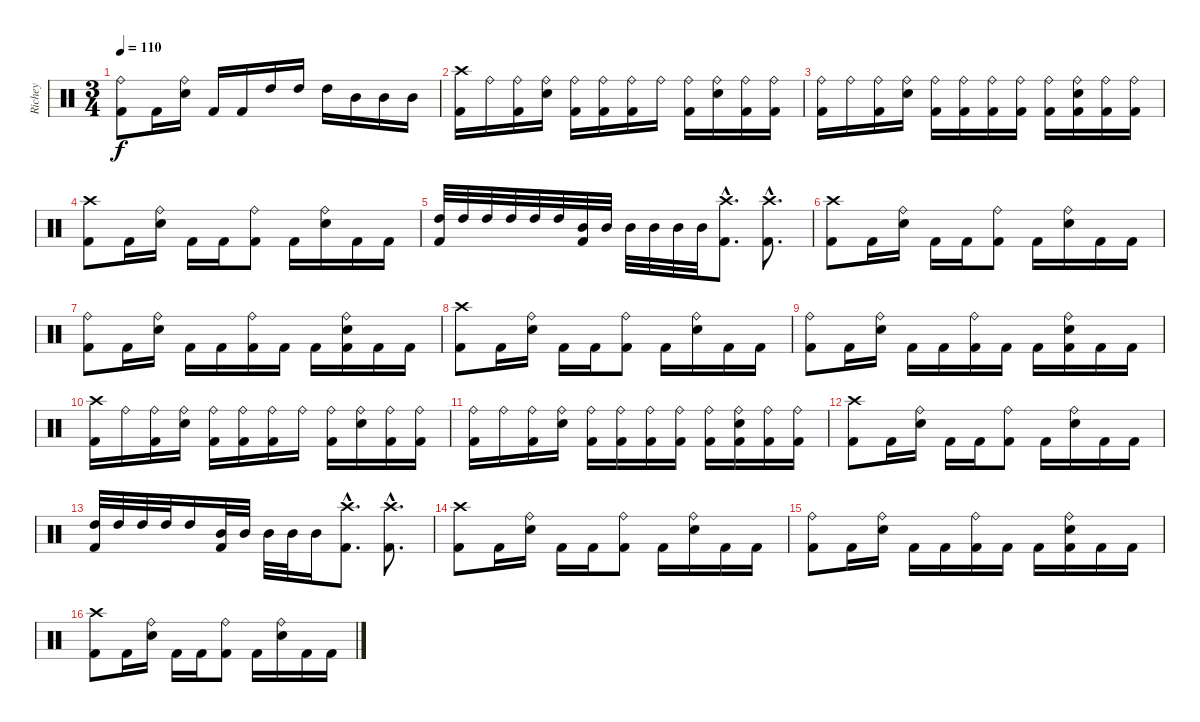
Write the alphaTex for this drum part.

\track ("Richey" "Richey") {instrument percussion}
\staff {score}
\articulation defaults
\ts (3 4)
\tempo 110
\clef neutral
\ks c
("Ride (bell)" "Kick (hit) 2").8{dy f} "Kick (hit) 2".16 ("Ride (bell)" "Snare (hit) 2").16 "Kick (hit) 2".16 "Kick (hit) 2".16 "High Tom (hit)".16 "High Tom (hit)".16 "High Tom (hit)".16 "Mid Tom (hit)".16 "Mid Tom (hit)".16 "Mid Tom (hit)".16 |
("Crash high (hit)" "Kick (hit) 2").16 "Ride (bell)".16 ("Ride (bell)" "Kick (hit) 2").16 ("Ride (bell)" "Snare (hit) 2").16 ("Ride (bell)" "Kick (hit) 2").16 ("Ride (bell)" "Kick (hit) 2").16 ("Ride (bell)" "Kick (hit) 2").16 "Ride (bell)".16 ("Ride (bell)" "Kick (hit) 2").16 ("Ride (bell)" "Snare (hit) 2").16 ("Ride (bell)" "Kick (hit) 2").16 ("Ride (bell)" "Kick (hit) 2").16 |
("Ride (bell)" "Kick (hit) 2").16 "Ride (bell)".16 ("Ride (bell)" "Kick (hit) 2").16 ("Ride (bell)" "Snare (hit) 2").16 ("Ride (bell)" "Kick (hit) 2").16 ("Ride (bell)" "Kick (hit) 2").16 ("Ride (bell)" "Kick (hit) 2").16 ("Ride (bell)" "Kick (hit) 2").16 ("Ride (bell)" "Kick (hit) 2").16 ("Ride (bell)" "Snare (hit) 2" "Kick (hit) 2").16 ("Ride (bell)" "Kick (hit) 2").16 ("Ride (bell)" "Kick (hit) 2").16 |
("Crash high (hit)" "Kick (hit) 2").8 "Kick (hit) 2".16 ("Ride (bell)" "Snare (hit) 2").16 "Kick (hit) 2".16 "Kick (hit) 2".16 ("Ride (bell)" "Kick (hit) 2").8 "Kick (hit) 2".16 ("Ride (bell)" "Snare (hit) 2").16 "Kick (hit) 2".16 "Kick (hit) 2".16 |
("High Tom (hit)" "Kick (hit) 2").32 "High Tom (hit)".32 "High Tom (hit)".32 "High Tom (hit)".32 "High Tom (hit)".32 "High Tom (hit)".32 ("Mid Tom (hit)" "Kick (hit) 2").32 "Mid Tom (hit)".32 "Mid Tom (hit)".32 "Mid Tom (hit)".32 "Mid Tom (hit)".32 "Mid Tom (hit)".32 ("Crash high (hit)"{hac} "Kick (hit) 2"{hac}).8{d} ("Crash high (hit)"{hac} "Kick (hit) 2"{hac}).8{d} |
("Crash high (hit)" "Kick (hit) 2").8 "Kick (hit) 2".16 ("Ride (bell)" "Snare (hit) 2").16 "Kick (hit) 2".16 "Kick (hit) 2".16 ("Ride (bell)" "Kick (hit) 2").8 "Kick (hit) 2".16 ("Ride (bell)" "Snare (hit) 2").16 "Kick (hit) 2".16 "Kick (hit) 2".16 |
("Ride (bell)" "Kick (hit) 2").8 "Kick (hit) 2".16 ("Ride (bell)" "Snare (hit) 2").16 "Kick (hit) 2".16 "Kick (hit) 2".16 ("Ride (bell)" "Kick (hit) 2").16 "Kick (hit) 2".16 "Kick (hit) 2".16 ("Ride (bell)" "Snare (hit) 2" "Kick (hit) 2").16 "Kick (hit) 2".16 "Kick (hit) 2".16 |
("Crash high (hit)" "Kick (hit) 2").8 "Kick (hit) 2".16 ("Ride (bell)" "Snare (hit) 2").16 "Kick (hit) 2".16 "Kick (hit) 2".16 ("Ride (bell)" "Kick (hit) 2").8 "Kick (hit) 2".16 ("Ride (bell)" "Snare (hit) 2").16 "Kick (hit) 2".16 "Kick (hit) 2".16 |
("Ride (bell)" "Kick (hit) 2").8 "Kick (hit) 2".16 ("Ride (bell)" "Snare (hit) 2").16 "Kick (hit) 2".16 "Kick (hit) 2".16 ("Ride (bell)" "Kick (hit) 2").16 "Kick (hit) 2".16 "Kick (hit) 2".16 ("Ride (bell)" "Snare (hit) 2" "Kick (hit) 2").16 "Kick (hit) 2".16 "Kick (hit) 2".16 |
("Crash high (hit)" "Kick (hit) 2").16 "Ride (bell)".16 ("Ride (bell)" "Kick (hit) 2").16 ("Ride (bell)" "Snare (hit) 2").16 ("Ride (bell)" "Kick (hit) 2").16 ("Ride (bell)" "Kick (hit) 2").16 ("Ride (bell)" "Kick (hit) 2").16 "Ride (bell)".16 ("Ride (bell)" "Kick (hit) 2").16 ("Ride (bell)" "Snare (hit) 2").16 ("Ride (bell)" "Kick (hit) 2").16 ("Ride (bell)" "Kick (hit) 2").16 |
("Ride (bell)" "Kick (hit) 2").16 "Ride (bell)".16 ("Ride (bell)" "Kick (hit) 2").16 ("Ride (bell)" "Snare (hit) 2").16 ("Ride (bell)" "Kick (hit) 2").16 ("Ride (bell)" "Kick (hit) 2").16 ("Ride (bell)" "Kick (hit) 2").16 ("Ride (bell)" "Kick (hit) 2").16 ("Ride (bell)" "Kick (hit) 2").16 ("Ride (bell)" "Snare (hit) 2" "Kick (hit) 2").16 ("Ride (bell)" "Kick (hit) 2").16 ("Ride (bell)" "Kick (hit) 2").16 |
("Crash high (hit)" "Kick (hit) 2").8 "Kick (hit) 2".16 ("Ride (bell)" "Snare (hit) 2").16 "Kick (hit) 2".16 "Kick (hit) 2".16 ("Ride (bell)" "Kick (hit) 2").8 "Kick (hit) 2".16 ("Ride (bell)" "Snare (hit) 2").16 "Kick (hit) 2".16 "Kick (hit) 2".16 |
("High Tom (hit)" "Kick (hit) 2").32 "High Tom (hit)".32 "High Tom (hit)".32 "High Tom (hit)".32 "High Tom (hit)".16 ("Mid Tom (hit)" "Kick (hit) 2").32 "Mid Tom (hit)".32 "Mid Tom (hit)".32 "Mid Tom (hit)".32 "Mid Tom (hit)".16 ("Crash high (hit)"{hac} "Kick (hit) 2"{hac}).8{d} ("Crash high (hit)"{hac} "Kick (hit) 2"{hac}).8{d} |
("Crash high (hit)" "Kick (hit) 2").8 "Kick (hit) 2".16 ("Ride (bell)" "Snare (hit) 2").16 "Kick (hit) 2".16 "Kick (hit) 2".16 ("Ride (bell)" "Kick (hit) 2").8 "Kick (hit) 2".16 ("Ride (bell)" "Snare (hit) 2").16 "Kick (hit) 2".16 "Kick (hit) 2".16 |
("Ride (bell)" "Kick (hit) 2").8 "Kick (hit) 2".16 ("Ride (bell)" "Snare (hit) 2").16 "Kick (hit) 2".16 "Kick (hit) 2".16 ("Ride (bell)" "Kick (hit) 2").16 "Kick (hit) 2".16 "Kick (hit) 2".16 ("Ride (bell)" "Snare (hit) 2" "Kick (hit) 2").16 "Kick (hit) 2".16 "Kick (hit) 2".16 |
("Crash high (hit)" "Kick (hit) 2").8 "Kick (hit) 2".16 ("Ride (bell)" "Snare (hit) 2").16 "Kick (hit) 2".16 "Kick (hit) 2".16 ("Ride (bell)" "Kick (hit) 2").8 "Kick (hit) 2".16 ("Ride (bell)" "Snare (hit) 2").16 "Kick (hit) 2".16 "Kick (hit) 2".16
